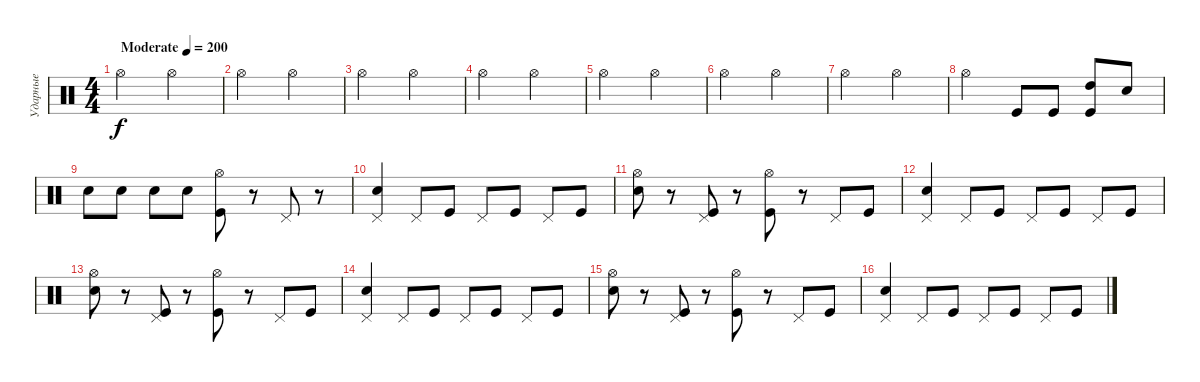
\track ("Ударные" "Ударные") {instrument percussion}
\staff {score}
\articulation defaults
\ts (4 4)
\tempo (200 "Moderate")
\clef neutral
\ks c "Hi-Hat (open)".2{dy f} "Hi-Hat (open)".2
|
"Hi-Hat (open)".2 "Hi-Hat (open)".2 |
"Hi-Hat (open)".2 "Hi-Hat (open)".2 |
"Hi-Hat (open)".2 "Hi-Hat (open)".2 |
"Hi-Hat (open)".2 "Hi-Hat (open)".2 |
"Hi-Hat (open)".2 "Hi-Hat (open)".2 |
"Hi-Hat (open)".2 "Hi-Hat (open)".2 |
"Hi-Hat (open)".2 "Kick (hit)".8 "Kick (hit)".8 ("High Tom (hit)" "Kick (hit)").8 "Electric Snare (hit)".8 |
"Electric Snare (hit)".8 "Electric Snare (hit)".8 "Electric Snare (hit)".8 "Electric Snare (hit)".8 ("Hi-Hat (open)" "Kick (hit)").8 r.8 "Pedal Hi-Hat (hit)".8 r.8 |
("Pedal Hi-Hat (hit)" "Electric Snare (hit)").4 "Pedal Hi-Hat (hit)".8 "Kick (hit)".8 "Pedal Hi-Hat (hit)".8 "Kick (hit)".8 "Pedal Hi-Hat (hit)".8 "Kick (hit)".8 |
("Hi-Hat (open)" "Electric Snare (hit)").8 r.8 ("Pedal Hi-Hat (hit)" "Kick (hit)").8 r.8 ("Hi-Hat (open)" "Kick (hit)").8 r.8 "Pedal Hi-Hat (hit)".8 "Kick (hit)".8 |
("Pedal Hi-Hat (hit)" "Electric Snare (hit)").4 "Pedal Hi-Hat (hit)".8 "Kick (hit)".8 "Pedal Hi-Hat (hit)".8 "Kick (hit)".8 "Pedal Hi-Hat (hit)".8 "Kick (hit)".8 |
("Hi-Hat (open)" "Electric Snare (hit)").8 r.8 ("Pedal Hi-Hat (hit)" "Kick (hit)").8 r.8 ("Hi-Hat (open)" "Kick (hit)").8 r.8 "Pedal Hi-Hat (hit)".8 "Kick (hit)".8 |
("Pedal Hi-Hat (hit)" "Electric Snare (hit)").4 "Pedal Hi-Hat (hit)".8 "Kick (hit)".8 "Pedal Hi-Hat (hit)".8 "Kick (hit)".8 "Pedal Hi-Hat (hit)".8 "Kick (hit)".8 |
("Hi-Hat (open)" "Electric Snare (hit)").8 r.8 ("Pedal Hi-Hat (hit)" "Kick (hit)").8 r.8 ("Hi-Hat (open)" "Kick (hit)").8 r.8 "Pedal Hi-Hat (hit)".8 "Kick (hit)".8 |
("Pedal Hi-Hat (hit)" "Electric Snare (hit)").4 "Pedal Hi-Hat (hit)".8 "Kick (hit)".8 "Pedal Hi-Hat (hit)".8 "Kick (hit)".8 "Pedal Hi-Hat (hit)".8 "Kick (hit)".8
